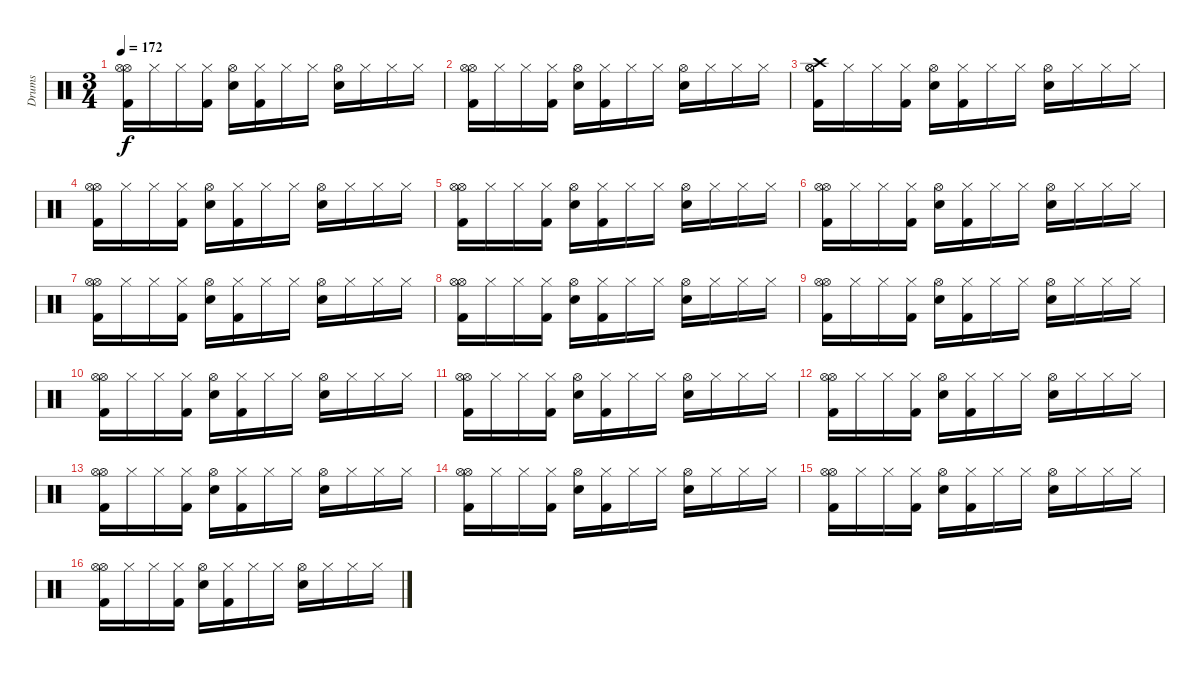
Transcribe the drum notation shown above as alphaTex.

\track ("Drums" "Drums") {instrument percussion}
\staff {score}
\articulation defaults
\ts (3 4)
\tempo 172
\clef neutral
\ks c
("Kick (hit) 2" "Hi-Hat (open)" "Hi-Hat (open)").16{dy f} "Hi-Hat (closed)".16 "Hi-Hat (closed)".16 ("Hi-Hat (closed)" "Kick (hit) 2").16 ("Snare (hit) 2" "Hi-Hat (open)").16 ("Kick (hit) 2" "Hi-Hat (closed)").16 "Hi-Hat (closed)".16 "Hi-Hat (closed)".16 ("Hi-Hat (open)" "Snare (hit) 2").16 "Hi-Hat (closed)".16 "Hi-Hat (closed)".16 "Hi-Hat (closed)".16 |
("Kick (hit) 2" "Hi-Hat (open)" "Hi-Hat (open)").16 "Hi-Hat (closed)".16 "Hi-Hat (closed)".16 ("Hi-Hat (closed)" "Kick (hit) 2").16 ("Snare (hit) 2" "Hi-Hat (open)").16 ("Kick (hit) 2" "Hi-Hat (closed)").16 "Hi-Hat (closed)".16 "Hi-Hat (closed)".16 ("Hi-Hat (open)" "Snare (hit) 2").16 "Hi-Hat (closed)".16 "Hi-Hat (closed)".16 "Hi-Hat (closed)".16 |
("Crash high (hit)" "Kick (hit) 2" "Hi-Hat (open)" "Hi-Hat (open)").16 "Hi-Hat (closed)".16 "Hi-Hat (closed)".16 ("Hi-Hat (closed)" "Kick (hit) 2").16 ("Snare (hit) 2" "Hi-Hat (open)").16 ("Kick (hit) 2" "Hi-Hat (closed)").16 "Hi-Hat (closed)".16 "Hi-Hat (closed)".16 ("Hi-Hat (open)" "Snare (hit) 2").16 "Hi-Hat (closed)".16 "Hi-Hat (closed)".16 "Hi-Hat (closed)".16 |
("Kick (hit) 2" "Hi-Hat (open)" "Hi-Hat (open)").16 "Hi-Hat (closed)".16 "Hi-Hat (closed)".16 ("Hi-Hat (closed)" "Kick (hit) 2").16 ("Snare (hit) 2" "Hi-Hat (open)").16 ("Kick (hit) 2" "Hi-Hat (closed)").16 "Hi-Hat (closed)".16 "Hi-Hat (closed)".16 ("Hi-Hat (open)" "Snare (hit) 2").16 "Hi-Hat (closed)".16 "Hi-Hat (closed)".16 "Hi-Hat (closed)".16 |
("Kick (hit) 2" "Hi-Hat (open)" "Hi-Hat (open)").16 "Hi-Hat (closed)".16 "Hi-Hat (closed)".16 ("Hi-Hat (closed)" "Kick (hit) 2").16 ("Snare (hit) 2" "Hi-Hat (open)").16 ("Kick (hit) 2" "Hi-Hat (closed)").16 "Hi-Hat (closed)".16 "Hi-Hat (closed)".16 ("Hi-Hat (open)" "Snare (hit) 2").16 "Hi-Hat (closed)".16 "Hi-Hat (closed)".16 "Hi-Hat (closed)".16 |
("Kick (hit) 2" "Hi-Hat (open)" "Hi-Hat (open)").16 "Hi-Hat (closed)".16 "Hi-Hat (closed)".16 ("Hi-Hat (closed)" "Kick (hit) 2").16 ("Snare (hit) 2" "Hi-Hat (open)").16 ("Kick (hit) 2" "Hi-Hat (closed)").16 "Hi-Hat (closed)".16 "Hi-Hat (closed)".16 ("Hi-Hat (open)" "Snare (hit) 2").16 "Hi-Hat (closed)".16 "Hi-Hat (closed)".16 "Hi-Hat (closed)".16 |
("Kick (hit) 2" "Hi-Hat (open)" "Hi-Hat (open)").16 "Hi-Hat (closed)".16 "Hi-Hat (closed)".16 ("Hi-Hat (closed)" "Kick (hit) 2").16 ("Snare (hit) 2" "Hi-Hat (open)").16 ("Kick (hit) 2" "Hi-Hat (closed)").16 "Hi-Hat (closed)".16 "Hi-Hat (closed)".16 ("Hi-Hat (open)" "Snare (hit) 2").16 "Hi-Hat (closed)".16 "Hi-Hat (closed)".16 "Hi-Hat (closed)".16 |
("Kick (hit) 2" "Hi-Hat (open)" "Hi-Hat (open)").16 "Hi-Hat (closed)".16 "Hi-Hat (closed)".16 ("Hi-Hat (closed)" "Kick (hit) 2").16 ("Snare (hit) 2" "Hi-Hat (open)").16 ("Kick (hit) 2" "Hi-Hat (closed)").16 "Hi-Hat (closed)".16 "Hi-Hat (closed)".16 ("Hi-Hat (open)" "Snare (hit) 2").16 "Hi-Hat (closed)".16 "Hi-Hat (closed)".16 "Hi-Hat (closed)".16 |
("Kick (hit) 2" "Hi-Hat (open)" "Hi-Hat (open)").16 "Hi-Hat (closed)".16 "Hi-Hat (closed)".16 ("Hi-Hat (closed)" "Kick (hit) 2").16 ("Snare (hit) 2" "Hi-Hat (open)").16 ("Kick (hit) 2" "Hi-Hat (closed)").16 "Hi-Hat (closed)".16 "Hi-Hat (closed)".16 ("Hi-Hat (open)" "Snare (hit) 2").16 "Hi-Hat (closed)".16 "Hi-Hat (closed)".16 "Hi-Hat (closed)".16 |
("Kick (hit) 2" "Hi-Hat (open)" "Hi-Hat (open)").16 "Hi-Hat (closed)".16 "Hi-Hat (closed)".16 ("Hi-Hat (closed)" "Kick (hit) 2").16 ("Snare (hit) 2" "Hi-Hat (open)").16 ("Kick (hit) 2" "Hi-Hat (closed)").16 "Hi-Hat (closed)".16 "Hi-Hat (closed)".16 ("Hi-Hat (open)" "Snare (hit) 2").16 "Hi-Hat (closed)".16 "Hi-Hat (closed)".16 "Hi-Hat (closed)".16 |
("Kick (hit) 2" "Hi-Hat (open)" "Hi-Hat (open)").16 "Hi-Hat (closed)".16 "Hi-Hat (closed)".16 ("Hi-Hat (closed)" "Kick (hit) 2").16 ("Snare (hit) 2" "Hi-Hat (open)").16 ("Kick (hit) 2" "Hi-Hat (closed)").16 "Hi-Hat (closed)".16 "Hi-Hat (closed)".16 ("Hi-Hat (open)" "Snare (hit) 2").16 "Hi-Hat (closed)".16 "Hi-Hat (closed)".16 "Hi-Hat (closed)".16 |
("Kick (hit) 2" "Hi-Hat (open)" "Hi-Hat (open)").16 "Hi-Hat (closed)".16 "Hi-Hat (closed)".16 ("Hi-Hat (closed)" "Kick (hit) 2").16 ("Snare (hit) 2" "Hi-Hat (open)").16 ("Kick (hit) 2" "Hi-Hat (closed)").16 "Hi-Hat (closed)".16 "Hi-Hat (closed)".16 ("Hi-Hat (open)" "Snare (hit) 2").16 "Hi-Hat (closed)".16 "Hi-Hat (closed)".16 "Hi-Hat (closed)".16 |
("Kick (hit) 2" "Hi-Hat (open)" "Hi-Hat (open)").16 "Hi-Hat (closed)".16 "Hi-Hat (closed)".16 ("Hi-Hat (closed)" "Kick (hit) 2").16 ("Snare (hit) 2" "Hi-Hat (open)").16 ("Kick (hit) 2" "Hi-Hat (closed)").16 "Hi-Hat (closed)".16 "Hi-Hat (closed)".16 ("Hi-Hat (open)" "Snare (hit) 2").16 "Hi-Hat (closed)".16 "Hi-Hat (closed)".16 "Hi-Hat (closed)".16 |
("Kick (hit) 2" "Hi-Hat (open)" "Hi-Hat (open)").16 "Hi-Hat (closed)".16 "Hi-Hat (closed)".16 ("Hi-Hat (closed)" "Kick (hit) 2").16 ("Snare (hit) 2" "Hi-Hat (open)").16 ("Kick (hit) 2" "Hi-Hat (closed)").16 "Hi-Hat (closed)".16 "Hi-Hat (closed)".16 ("Hi-Hat (open)" "Snare (hit) 2").16 "Hi-Hat (closed)".16 "Hi-Hat (closed)".16 "Hi-Hat (closed)".16 |
("Kick (hit) 2" "Hi-Hat (open)" "Hi-Hat (open)").16 "Hi-Hat (closed)".16 "Hi-Hat (closed)".16 ("Hi-Hat (closed)" "Kick (hit) 2").16 ("Snare (hit) 2" "Hi-Hat (open)").16 ("Kick (hit) 2" "Hi-Hat (closed)").16 "Hi-Hat (closed)".16 "Hi-Hat (closed)".16 ("Hi-Hat (open)" "Snare (hit) 2").16 "Hi-Hat (closed)".16 "Hi-Hat (closed)".16 "Hi-Hat (closed)".16 |
("Kick (hit) 2" "Hi-Hat (open)" "Hi-Hat (open)").16 "Hi-Hat (closed)".16 "Hi-Hat (closed)".16 ("Hi-Hat (closed)" "Kick (hit) 2").16 ("Snare (hit) 2" "Hi-Hat (open)").16 ("Kick (hit) 2" "Hi-Hat (closed)").16 "Hi-Hat (closed)".16 "Hi-Hat (closed)".16 ("Hi-Hat (open)" "Snare (hit) 2").16 "Hi-Hat (closed)".16 "Hi-Hat (closed)".16 "Hi-Hat (closed)".16
